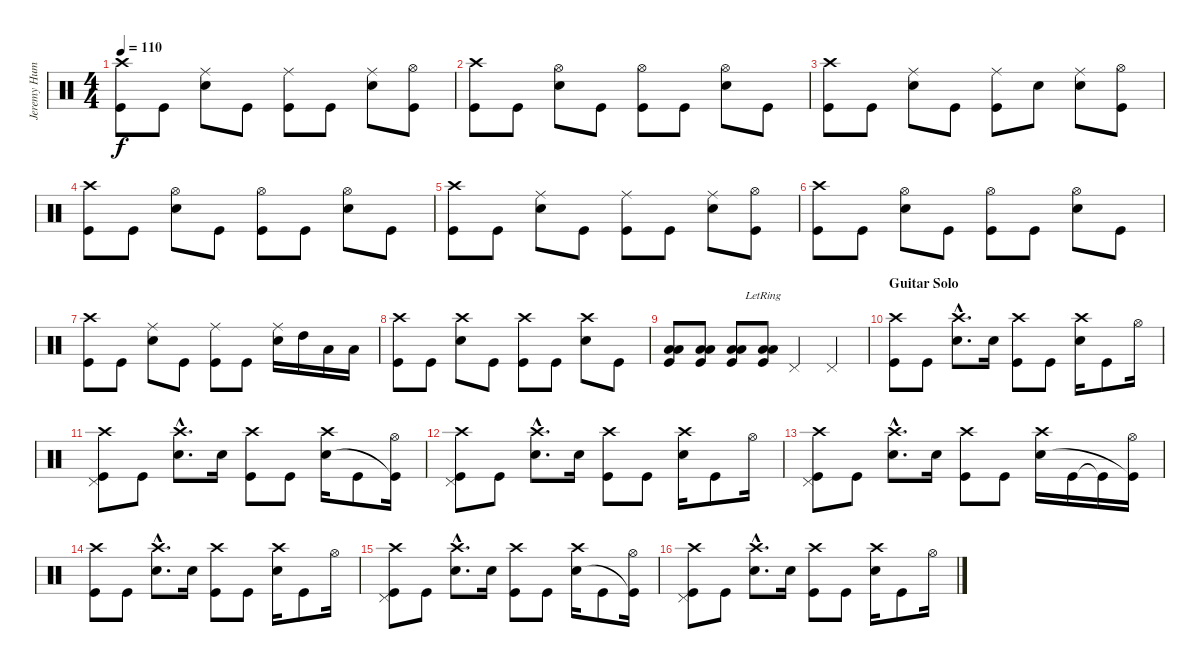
\track ("Jeremy Hummel" "Jeremy Hum") {instrument percussion}
\staff {score}
\articulation defaults
\ts (4 4)
\tempo 110
\clef neutral
\ks c
("Crash high (hit)" "Kick (hit)").8{dy f} "Kick (hit)".8 ("Ride (middle)" "Electric Snare (hit)").8 "Kick (hit)".8 ("Ride (middle)" "Kick (hit)").8 "Kick (hit)".8 ("Ride (middle)" "Electric Snare (hit)").8 ("Hi-Hat (open)" "Kick (hit)").8 |
("Crash high (hit)" "Kick (hit)").8 "Kick (hit)".8 ("Hi-Hat (open)" "Electric Snare (hit)").8 "Kick (hit)".8 ("Hi-Hat (open)" "Kick (hit)").8 "Kick (hit)".8 ("Hi-Hat (open)" "Electric Snare (hit)").8 "Kick (hit)".8 |
("Crash high (hit)" "Kick (hit)").8 "Kick (hit)".8 ("Ride (middle)" "Electric Snare (hit)").8 "Kick (hit)".8 ("Ride (middle)" "Kick (hit)").8 "Electric Snare (hit)".8 ("Ride (middle)" "Electric Snare (hit)").8 ("Hi-Hat (open)" "Kick (hit)").8 |
("Crash high (hit)" "Kick (hit)").8 "Kick (hit)".8 ("Hi-Hat (open)" "Electric Snare (hit)").8 "Kick (hit)".8 ("Hi-Hat (open)" "Kick (hit)").8 "Kick (hit)".8 ("Hi-Hat (open)" "Electric Snare (hit)").8 "Kick (hit)".8 |
("Crash high (hit)" "Kick (hit)").8 "Kick (hit)".8 ("Ride (middle)" "Electric Snare (hit)").8 "Kick (hit)".8 ("Ride (middle)" "Kick (hit)").8 "Kick (hit)".8 ("Ride (middle)" "Electric Snare (hit)").8 ("Hi-Hat (open)" "Kick (hit)").8 |
("Crash high (hit)" "Kick (hit)").8 "Kick (hit)".8 ("Hi-Hat (open)" "Electric Snare (hit)").8 "Kick (hit)".8 ("Hi-Hat (open)" "Kick (hit)").8 "Kick (hit)".8 ("Hi-Hat (open)" "Electric Snare (hit)").8 "Kick (hit)".8 |
("Crash high (hit)" "Kick (hit)").8 "Kick (hit)".8 ("Ride (middle)" "Electric Snare (hit)").8 "Kick (hit)".8 ("Ride (middle)" "Kick (hit)").8 "Kick (hit)".8 ("Ride (middle)" "Electric Snare (hit)").16 "High Tom (hit)".16 "Low Tom (hit)".16 "Low Floor Tom (hit)".16 |
("Crash high (hit)" "Kick (hit)").8 "Kick (hit)".8 ("Crash high (hit)" "Electric Snare (hit)").8 "Kick (hit)".8 ("Crash high (hit)" "Kick (hit)").8 "Kick (hit)".8 ("Crash high (hit)" "Electric Snare (hit)").8 "Kick (hit)".8 |
("Low Floor Tom (hit)" "Low Tom (hit)" "Kick (hit)").8{volume 8} ("Low Floor Tom (hit)" "Low Tom (hit)" "Kick (hit)").8{volume 13} ("Low Floor Tom (hit)" "Low Tom (hit)" "Kick (hit)").8 ("Low Floor Tom (hit)"{lr} "Low Tom (hit)"{lr} "Kick (hit)").8 "Pedal Hi-Hat (hit)".4 "Pedal Hi-Hat (hit)".4 |
\section ("" "Guitar Solo")
("Crash high (hit)" "Kick (hit)").8 "Kick (hit)".8 ("Crash high (hit)"{hac} "Electric Snare (hit)"{hac}).8{d} "Electric Snare (hit)".16 ("Crash high (hit)" "Kick (hit)").8 "Kick (hit)".8 ("Crash high (hit)" "Electric Snare (hit)").16 "Kick (hit)".8 "Hi-Hat (open)".16 |
("Crash high (hit)" "Pedal Hi-Hat (hit)" "Kick (hit)").8 "Kick (hit)".8 ("Crash high (hit)"{hac} "Electric Snare (hit)"{hac}).8{d} "Electric Snare (hit)".16 ("Crash high (hit)" "Kick (hit)").8 "Kick (hit)".8 ("Crash high (hit)" "Electric Snare (hit)").16 "Kick (hit)".8 ("Hi-Hat (open)" "Kick (hit)"{t}).16 |
("Crash high (hit)" "Pedal Hi-Hat (hit)" "Kick (hit)").8 "Kick (hit)".8 ("Crash high (hit)"{hac} "Electric Snare (hit)"{hac}).8{d} "Electric Snare (hit)".16 ("Crash high (hit)" "Kick (hit)").8 "Kick (hit)".8 ("Crash high (hit)" "Electric Snare (hit)").16 "Kick (hit)".8 "Hi-Hat (open)".16 |
("Crash high (hit)" "Pedal Hi-Hat (hit)" "Kick (hit)").8 "Kick (hit)".8 ("Crash high (hit)"{hac} "Electric Snare (hit)"{hac}).8{d} "Electric Snare (hit)".16 ("Crash high (hit)" "Kick (hit)").8 "Kick (hit)".8 ("Crash high (hit)" "Electric Snare (hit)").16 "Kick (hit)".16 "Kick (hit)"{t}.16 ("Hi-Hat (open)" "Kick (hit)"{t}).16 |
("Crash high (hit)" "Kick (hit)").8 "Kick (hit)".8 ("Crash high (hit)"{hac} "Electric Snare (hit)"{hac}).8{d} "Electric Snare (hit)".16 ("Crash high (hit)" "Kick (hit)").8 "Kick (hit)".8 ("Crash high (hit)" "Electric Snare (hit)").16 "Kick (hit)".8 "Hi-Hat (open)".16 |
("Crash high (hit)" "Pedal Hi-Hat (hit)" "Kick (hit)").8 "Kick (hit)".8 ("Crash high (hit)"{hac} "Electric Snare (hit)"{hac}).8{d} "Electric Snare (hit)".16 ("Crash high (hit)" "Kick (hit)").8 "Kick (hit)".8 ("Crash high (hit)" "Electric Snare (hit)").16 "Kick (hit)".8 ("Hi-Hat (open)" "Kick (hit)"{t}).16 |
("Crash high (hit)" "Pedal Hi-Hat (hit)" "Kick (hit)").8 "Kick (hit)".8 ("Crash high (hit)"{hac} "Electric Snare (hit)"{hac}).8{d} "Electric Snare (hit)".16 ("Crash high (hit)" "Kick (hit)").8 "Kick (hit)".8 ("Crash high (hit)" "Electric Snare (hit)").16 "Kick (hit)".8 "Hi-Hat (open)".16
